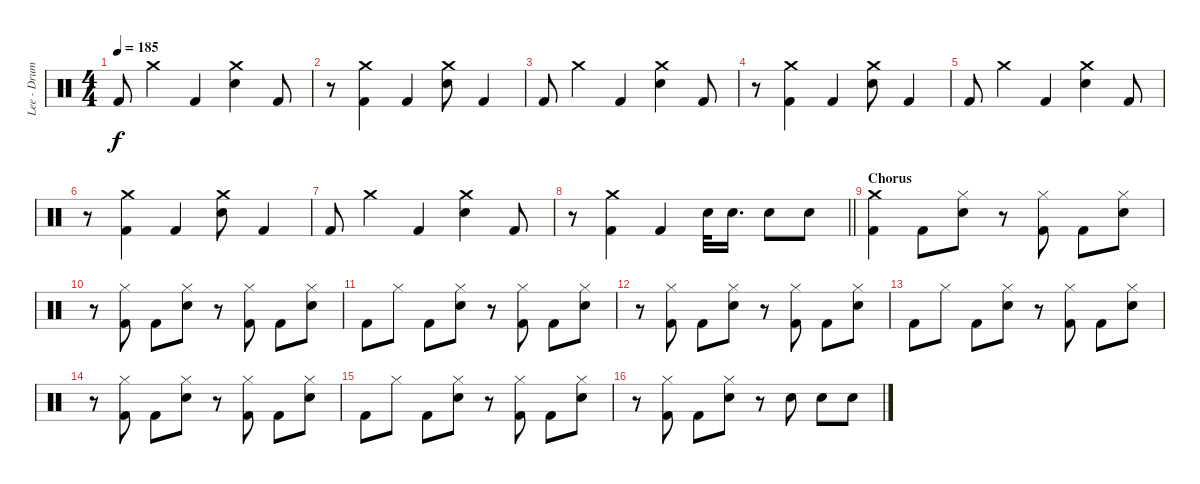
\track ("Lee - Drums" "Lee - Drum") {instrument percussion}
\staff {score}
\articulation defaults
\ts (4 4)
\tempo 185
\clef neutral
\ks c "Kick (hit) 2".8{dy f} "Crash medium (hit)".4 "Kick (hit) 2".4
("Crash medium (hit)" "Snare (hit) 2").4 "Kick (hit) 2".8 |
r.8 ("Crash medium (hit)" "Kick (hit) 2").4 "Kick (hit) 2".4 ("Crash medium (hit)" "Snare (hit) 2").8 "Kick (hit) 2".4 |
"Kick (hit) 2".8 "Crash medium (hit)".4 "Kick (hit) 2".4 ("Crash medium (hit)" "Snare (hit) 2").4 "Kick (hit) 2".8 |
r.8 ("Crash medium (hit)" "Kick (hit) 2").4 "Kick (hit) 2".4 ("Crash medium (hit)" "Snare (hit) 2").8 "Kick (hit) 2".4 |
"Kick (hit) 2".8 "Crash medium (hit)".4 "Kick (hit) 2".4 ("Crash medium (hit)" "Snare (hit) 2").4 "Kick (hit) 2".8 |
r.8 ("Crash medium (hit)" "Kick (hit) 2").4 "Kick (hit) 2".4 ("Crash medium (hit)" "Snare (hit) 2").8 "Kick (hit) 2".4 |
"Kick (hit) 2".8 "Crash medium (hit)".4 "Kick (hit) 2".4 ("Crash medium (hit)" "Snare (hit) 2").4 "Kick (hit) 2".8 |
\barLineRight lightlight
r.8 ("Crash medium (hit)" "Kick (hit) 2").4 "Kick (hit) 2".4 "Snare (hit) 2".32 "Snare (hit) 2".16{d} "Snare (hit) 2".8 "Snare (hit) 2".8 |
\section ("" "Chorus")
("Crash medium (hit)" "Kick (hit) 2").4 "Kick (hit) 2".8 ("Hi-Hat (closed)" "Snare (hit) 2").8 r.8 ("Hi-Hat (closed)" "Kick (hit) 2").8 "Kick (hit) 2".8 ("Hi-Hat (closed)" "Snare (hit) 2").8 |
r.8 ("Hi-Hat (closed)" "Kick (hit) 2").8 "Kick (hit) 2".8 ("Hi-Hat (closed)" "Snare (hit) 2").8 r.8 ("Hi-Hat (closed)" "Kick (hit) 2").8 "Kick (hit) 2".8 ("Hi-Hat (closed)" "Snare (hit) 2").8 |
"Kick (hit) 2".8 "Hi-Hat (closed)".8 "Kick (hit) 2".8 ("Hi-Hat (closed)" "Snare (hit) 2").8 r.8 ("Hi-Hat (closed)" "Kick (hit) 2").8 "Kick (hit) 2".8 ("Hi-Hat (closed)" "Snare (hit) 2").8 |
r.8 ("Hi-Hat (closed)" "Kick (hit) 2").8 "Kick (hit) 2".8 ("Hi-Hat (closed)" "Snare (hit) 2").8 r.8 ("Hi-Hat (closed)" "Kick (hit) 2").8 "Kick (hit) 2".8 ("Hi-Hat (closed)" "Snare (hit) 2").8 |
"Kick (hit) 2".8 "Hi-Hat (closed)".8 "Kick (hit) 2".8 ("Hi-Hat (closed)" "Snare (hit) 2").8 r.8 ("Hi-Hat (closed)" "Kick (hit) 2").8 "Kick (hit) 2".8 ("Hi-Hat (closed)" "Snare (hit) 2").8 |
r.8 ("Hi-Hat (closed)" "Kick (hit) 2").8 "Kick (hit) 2".8 ("Hi-Hat (closed)" "Snare (hit) 2").8 r.8 ("Hi-Hat (closed)" "Kick (hit) 2").8 "Kick (hit) 2".8 ("Hi-Hat (closed)" "Snare (hit) 2").8 |
"Kick (hit) 2".8 "Hi-Hat (closed)".8 "Kick (hit) 2".8 ("Hi-Hat (closed)" "Snare (hit) 2").8 r.8 ("Hi-Hat (closed)" "Kick (hit) 2").8 "Kick (hit) 2".8 ("Hi-Hat (closed)" "Snare (hit) 2").8 |
r.8 ("Hi-Hat (closed)" "Kick (hit) 2").8 "Kick (hit) 2".8 ("Hi-Hat (closed)" "Snare (hit) 2").8 r.8 "Snare (hit) 2".8 "Snare (hit) 2".8 "Snare (hit) 2".8
